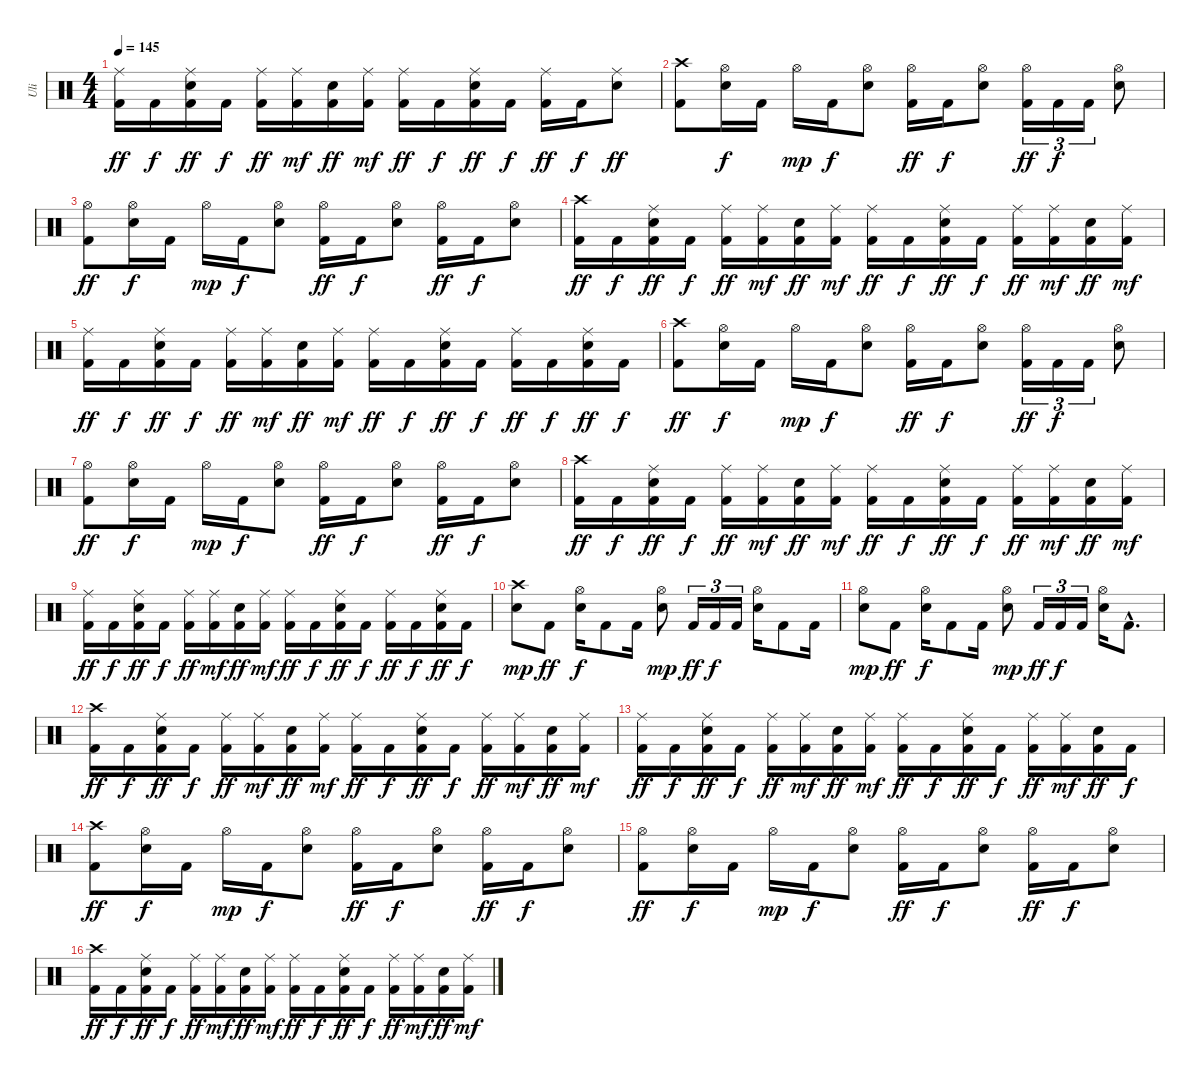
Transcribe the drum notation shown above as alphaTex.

\track ("Uli" "Uli") {instrument percussion}
\staff {score}
\articulation defaults
\ts (4 4)
\tempo 145
\clef neutral
\ks c
("Ride (middle)" "Kick (hit) 2").16{dy ff} "Kick (hit) 2".16{dy f} ("Ride (middle)" "Electric Snare (hit)" "Kick (hit) 2").16{dy ff} "Kick (hit) 2".16{dy f} ("Ride (middle)" "Kick (hit) 2").16{dy ff} ("Ride (middle)" "Kick (hit) 2").16{dy mf} ("Electric Snare (hit)" "Kick (hit) 2").16{dy ff} ("Ride (middle)" "Kick (hit) 2").16{dy mf} ("Ride (middle)" "Kick (hit) 2").16{dy ff} "Kick (hit) 2".16{dy f} ("Ride (middle)" "Electric Snare (hit)" "Kick (hit) 2").16{dy ff} "Kick (hit) 2".16{dy f} ("Ride (middle)" "Kick (hit) 2").16{dy ff} "Kick (hit) 2".16{dy f} ("Ride (middle)" "Electric Snare (hit)").8{dy ff} |
("Crash high (hit)" "Kick (hit) 2").8 ("Hi-Hat (open)" "Electric Snare (hit)").16{dy f} "Kick (hit) 2".16 "Hi-Hat (open)".16{dy mp} "Kick (hit) 2".16{dy f} ("Hi-Hat (open)" "Electric Snare (hit)").8 ("Hi-Hat (open)" "Kick (hit) 2").16{dy ff} "Kick (hit) 2".16{dy f} ("Hi-Hat (open)" "Electric Snare (hit)").8 ("Hi-Hat (open)" "Kick (hit) 2").16{tu (3 2) dy ff} "Kick (hit) 2".16{tu (3 2) dy f} "Kick (hit) 2".16{tu (3 2)} ("Hi-Hat (open)" "Electric Snare (hit)").8 |
("Hi-Hat (open)" "Kick (hit) 2").8{dy ff} ("Hi-Hat (open)" "Electric Snare (hit)").16{dy f} "Kick (hit) 2".16 "Hi-Hat (open)".16{dy mp} "Kick (hit) 2".16{dy f} ("Hi-Hat (open)" "Electric Snare (hit)").8 ("Hi-Hat (open)" "Kick (hit) 2").16{dy ff} "Kick (hit) 2".16{dy f} ("Hi-Hat (open)" "Electric Snare (hit)").8 ("Hi-Hat (open)" "Kick (hit) 2").16{dy ff} "Kick (hit) 2".16{dy f} ("Hi-Hat (open)" "Electric Snare (hit)").8 |
("Crash high (hit)" "Kick (hit) 2").16{dy ff} "Kick (hit) 2".16{dy f} ("Ride (middle)" "Electric Snare (hit)" "Kick (hit) 2").16{dy ff} "Kick (hit) 2".16{dy f} ("Ride (middle)" "Kick (hit) 2").16{dy ff} ("Ride (middle)" "Kick (hit) 2").16{dy mf} ("Electric Snare (hit)" "Kick (hit) 2").16{dy ff} ("Ride (middle)" "Kick (hit) 2").16{dy mf} ("Ride (middle)" "Kick (hit) 2").16{dy ff} "Kick (hit) 2".16{dy f} ("Ride (middle)" "Electric Snare (hit)" "Kick (hit) 2").16{dy ff} "Kick (hit) 2".16{dy f} ("Ride (middle)" "Kick (hit) 2").16{dy ff} ("Ride (middle)" "Kick (hit) 2").16{dy mf} ("Electric Snare (hit)" "Kick (hit) 2").16{dy ff} ("Ride (middle)" "Kick (hit) 2").16{dy mf} |
("Ride (middle)" "Kick (hit) 2").16{dy ff} "Kick (hit) 2".16{dy f} ("Ride (middle)" "Electric Snare (hit)" "Kick (hit) 2").16{dy ff} "Kick (hit) 2".16{dy f} ("Ride (middle)" "Kick (hit) 2").16{dy ff} ("Ride (middle)" "Kick (hit) 2").16{dy mf} ("Electric Snare (hit)" "Kick (hit) 2").16{dy ff} ("Ride (middle)" "Kick (hit) 2").16{dy mf} ("Ride (middle)" "Kick (hit) 2").16{dy ff} "Kick (hit) 2".16{dy f} ("Ride (middle)" "Electric Snare (hit)" "Kick (hit) 2").16{dy ff} "Kick (hit) 2".16{dy f} ("Ride (middle)" "Kick (hit) 2").16{dy ff} "Kick (hit) 2".16{dy f} ("Ride (middle)" "Electric Snare (hit)" "Kick (hit) 2").16{dy ff} "Kick (hit) 2".16{dy f} |
("Crash high (hit)" "Kick (hit) 2").8{dy ff} ("Hi-Hat (open)" "Electric Snare (hit)").16{dy f} "Kick (hit) 2".16 "Hi-Hat (open)".16{dy mp} "Kick (hit) 2".16{dy f} ("Hi-Hat (open)" "Electric Snare (hit)").8 ("Hi-Hat (open)" "Kick (hit) 2").16{dy ff} "Kick (hit) 2".16{dy f} ("Hi-Hat (open)" "Electric Snare (hit)").8 ("Hi-Hat (open)" "Kick (hit) 2").16{tu (3 2) dy ff} "Kick (hit) 2".16{tu (3 2) dy f} "Kick (hit) 2".16{tu (3 2)} ("Hi-Hat (open)" "Electric Snare (hit)").8 |
("Hi-Hat (open)" "Kick (hit) 2").8{dy ff} ("Hi-Hat (open)" "Electric Snare (hit)").16{dy f} "Kick (hit) 2".16 "Hi-Hat (open)".16{dy mp} "Kick (hit) 2".16{dy f} ("Hi-Hat (open)" "Electric Snare (hit)").8 ("Hi-Hat (open)" "Kick (hit) 2").16{dy ff} "Kick (hit) 2".16{dy f} ("Hi-Hat (open)" "Electric Snare (hit)").8 ("Hi-Hat (open)" "Kick (hit) 2").16{dy ff} "Kick (hit) 2".16{dy f} ("Hi-Hat (open)" "Electric Snare (hit)").8 |
("Crash high (hit)" "Kick (hit) 2").16{dy ff} "Kick (hit) 2".16{dy f} ("Ride (middle)" "Electric Snare (hit)" "Kick (hit) 2").16{dy ff} "Kick (hit) 2".16{dy f} ("Ride (middle)" "Kick (hit) 2").16{dy ff} ("Ride (middle)" "Kick (hit) 2").16{dy mf} ("Electric Snare (hit)" "Kick (hit) 2").16{dy ff} ("Ride (middle)" "Kick (hit) 2").16{dy mf} ("Ride (middle)" "Kick (hit) 2").16{dy ff} "Kick (hit) 2".16{dy f} ("Ride (middle)" "Electric Snare (hit)" "Kick (hit) 2").16{dy ff} "Kick (hit) 2".16{dy f} ("Ride (middle)" "Kick (hit) 2").16{dy ff} ("Ride (middle)" "Kick (hit) 2").16{dy mf} ("Electric Snare (hit)" "Kick (hit) 2").16{dy ff} ("Ride (middle)" "Kick (hit) 2").16{dy mf} |
("Ride (middle)" "Kick (hit) 2").16{dy ff} "Kick (hit) 2".16{dy f} ("Ride (middle)" "Electric Snare (hit)" "Kick (hit) 2").16{dy ff} "Kick (hit) 2".16{dy f} ("Ride (middle)" "Kick (hit) 2").16{dy ff} ("Ride (middle)" "Kick (hit) 2").16{dy mf} ("Electric Snare (hit)" "Kick (hit) 2").16{dy ff} ("Ride (middle)" "Kick (hit) 2").16{dy mf} ("Ride (middle)" "Kick (hit) 2").16{dy ff} "Kick (hit) 2".16{dy f} ("Ride (middle)" "Electric Snare (hit)" "Kick (hit) 2").16{dy ff} "Kick (hit) 2".16{dy f} ("Ride (middle)" "Kick (hit) 2").16{dy ff} "Kick (hit) 2".16{dy f} ("Ride (middle)" "Electric Snare (hit)" "Kick (hit) 2").16{dy ff} "Kick (hit) 2".16{dy f} |
("Crash high (hit)" "Electric Snare (hit)").8{dy mp} "Kick (hit) 2".8{dy ff} ("Hi-Hat (open)" "Electric Snare (hit)").16{dy f} "Kick (hit) 2".8 "Kick (hit) 2".16 ("Hi-Hat (open)" "Electric Snare (hit)").8{dy mp} "Kick (hit) 2".16{tu (3 2) dy ff} "Kick (hit) 2".16{tu (3 2) dy f} "Kick (hit) 2".16{tu (3 2)} ("Hi-Hat (open)" "Electric Snare (hit)").16 "Kick (hit) 2".8 "Kick (hit) 2".16 |
("Hi-Hat (open)" "Electric Snare (hit)").8{dy mp} "Kick (hit) 2".8{dy ff} ("Hi-Hat (open)" "Electric Snare (hit)").16{dy f} "Kick (hit) 2".8 "Kick (hit) 2".16 ("Hi-Hat (open)" "Electric Snare (hit)").8{dy mp} "Kick (hit) 2".16{tu (3 2) dy ff} "Kick (hit) 2".16{tu (3 2) dy f} "Kick (hit) 2".16{tu (3 2)} ("Hi-Hat (open)" "Electric Snare (hit)").16 "Kick (hit) 2"{hac}.8{d} |
("Crash high (hit)" "Kick (hit) 2").16{dy ff} "Kick (hit) 2".16{dy f} ("Ride (middle)" "Electric Snare (hit)" "Kick (hit) 2").16{dy ff} "Kick (hit) 2".16{dy f} ("Ride (middle)" "Kick (hit) 2").16{dy ff} ("Ride (middle)" "Kick (hit) 2").16{dy mf} ("Electric Snare (hit)" "Kick (hit) 2").16{dy ff} ("Ride (middle)" "Kick (hit) 2").16{dy mf} ("Ride (middle)" "Kick (hit) 2").16{dy ff} "Kick (hit) 2".16{dy f} ("Ride (middle)" "Electric Snare (hit)" "Kick (hit) 2").16{dy ff} "Kick (hit) 2".16{dy f} ("Ride (middle)" "Kick (hit) 2").16{dy ff} ("Ride (middle)" "Kick (hit) 2").16{dy mf} ("Electric Snare (hit)" "Kick (hit) 2").16{dy ff} ("Ride (middle)" "Kick (hit) 2").16{dy mf} |
("Ride (middle)" "Kick (hit) 2").16{dy ff} "Kick (hit) 2".16{dy f} ("Ride (middle)" "Electric Snare (hit)" "Kick (hit) 2").16{dy ff} "Kick (hit) 2".16{dy f} ("Ride (middle)" "Kick (hit) 2").16{dy ff} ("Ride (middle)" "Kick (hit) 2").16{dy mf} ("Electric Snare (hit)" "Kick (hit) 2").16{dy ff} ("Ride (middle)" "Kick (hit) 2").16{dy mf} ("Ride (middle)" "Kick (hit) 2").16{dy ff} "Kick (hit) 2".16{dy f} ("Ride (middle)" "Electric Snare (hit)" "Kick (hit) 2").16{dy ff} "Kick (hit) 2".16{dy f} ("Ride (middle)" "Kick (hit) 2").16{dy ff} ("Ride (middle)" "Kick (hit) 2").16{dy mf} ("Electric Snare (hit)" "Kick (hit) 2").16{dy ff} "Kick (hit) 2".16{dy f} |
("Crash high (hit)" "Kick (hit) 2").8{dy ff} ("Hi-Hat (open)" "Electric Snare (hit)").16{dy f} "Kick (hit) 2".16 "Hi-Hat (open)".16{dy mp} "Kick (hit) 2".16{dy f} ("Hi-Hat (open)" "Electric Snare (hit)").8 ("Hi-Hat (open)" "Kick (hit) 2").16{dy ff} "Kick (hit) 2".16{dy f} ("Hi-Hat (open)" "Electric Snare (hit)").8 ("Hi-Hat (open)" "Kick (hit) 2").16{dy ff} "Kick (hit) 2".16{dy f} ("Hi-Hat (open)" "Electric Snare (hit)").8 |
("Hi-Hat (open)" "Kick (hit) 2").8{dy ff} ("Hi-Hat (open)" "Electric Snare (hit)").16{dy f} "Kick (hit) 2".16 "Hi-Hat (open)".16{dy mp} "Kick (hit) 2".16{dy f} ("Hi-Hat (open)" "Electric Snare (hit)").8 ("Hi-Hat (open)" "Kick (hit) 2").16{dy ff} "Kick (hit) 2".16{dy f} ("Hi-Hat (open)" "Electric Snare (hit)").8 ("Hi-Hat (open)" "Kick (hit) 2").16{dy ff} "Kick (hit) 2".16{dy f} ("Hi-Hat (open)" "Electric Snare (hit)").8 |
("Crash high (hit)" "Kick (hit) 2").16{dy ff} "Kick (hit) 2".16{dy f} ("Ride (middle)" "Electric Snare (hit)" "Kick (hit) 2").16{dy ff} "Kick (hit) 2".16{dy f} ("Ride (middle)" "Kick (hit) 2").16{dy ff} ("Ride (middle)" "Kick (hit) 2").16{dy mf} ("Electric Snare (hit)" "Kick (hit) 2").16{dy ff} ("Ride (middle)" "Kick (hit) 2").16{dy mf} ("Ride (middle)" "Kick (hit) 2").16{dy ff} "Kick (hit) 2".16{dy f} ("Ride (middle)" "Electric Snare (hit)" "Kick (hit) 2").16{dy ff} "Kick (hit) 2".16{dy f} ("Ride (middle)" "Kick (hit) 2").16{dy ff} ("Ride (middle)" "Kick (hit) 2").16{dy mf} ("Electric Snare (hit)" "Kick (hit) 2").16{dy ff} ("Ride (middle)" "Kick (hit) 2").16{dy mf}
